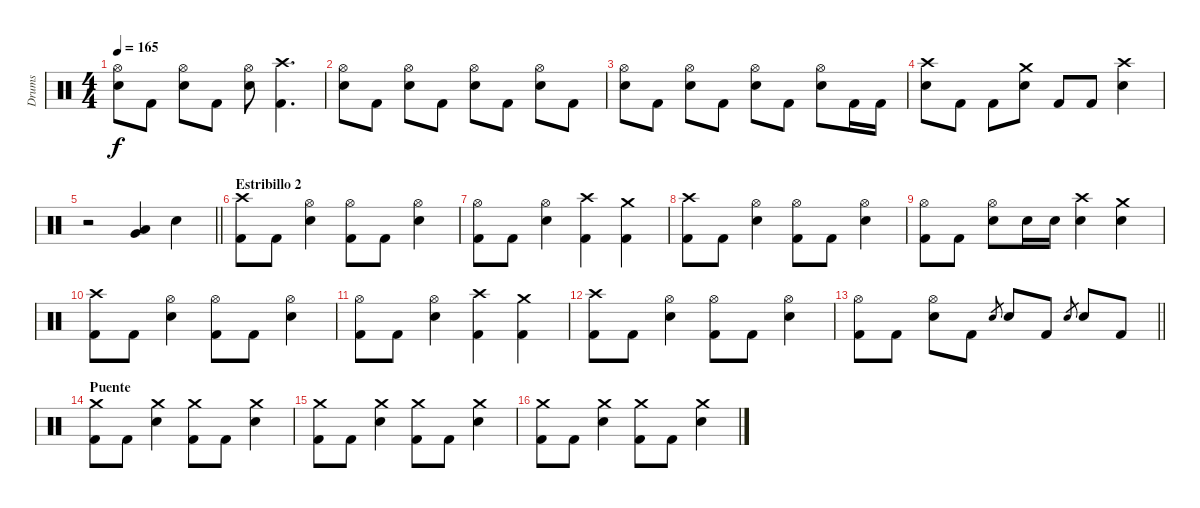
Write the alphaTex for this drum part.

\track ("Drums" "Drums") {instrument percussion}
\staff {score}
\articulation defaults
\ts (4 4)
\tempo 165
\clef neutral
\ks c
("Hi-Hat (open)" "Electric Snare (hit)").8{dy f} "Kick (hit) 2".8 ("Hi-Hat (open)" "Electric Snare (hit)").8 "Kick (hit) 2".8 ("Hi-Hat (open)" "Electric Snare (hit)").8 ("Crash high (hit)" "Kick (hit) 2").4{d} |
("Hi-Hat (open)" "Electric Snare (hit)").8 "Kick (hit) 2".8 ("Hi-Hat (open)" "Electric Snare (hit)").8 "Kick (hit) 2".8 ("Hi-Hat (open)" "Electric Snare (hit)").8 "Kick (hit) 2".8 ("Hi-Hat (open)" "Electric Snare (hit)").8 "Kick (hit) 2".8 |
("Hi-Hat (open)" "Electric Snare (hit)").8 "Kick (hit) 2".8 ("Hi-Hat (open)" "Electric Snare (hit)").8 "Kick (hit) 2".8 ("Hi-Hat (open)" "Electric Snare (hit)").8 "Kick (hit) 2".8 ("Hi-Hat (open)" "Electric Snare (hit)").8 "Kick (hit) 2".16 "Kick (hit) 2".16 |
("Crash high (hit)" "Electric Snare (hit)").8 "Kick (hit) 2".8 "Kick (hit) 2".8 ("Crash medium (hit)" "Electric Snare (hit)").8 "Kick (hit) 2".8 "Kick (hit) 2".8 ("Crash high (hit)" "Electric Snare (hit)").4 |
\barLineRight lightlight
r.2 ("Very Low Tom (hit)" "Low Floor Tom (hit)").4 "Electric Snare (hit)".4 |
\section ("" "Estribillo 2")
("Crash high (hit)" "Kick (hit) 2").8 "Kick (hit) 2".8 ("Hi-Hat (open)" "Electric Snare (hit)").4 ("Hi-Hat (open)" "Kick (hit) 2").8 "Kick (hit) 2".8 ("Hi-Hat (open)" "Electric Snare (hit)").4 |
("Hi-Hat (open)" "Kick (hit) 2").8 "Kick (hit) 2".8 ("Hi-Hat (open)" "Electric Snare (hit)").4 ("Crash high (hit)" "Kick (hit) 2").4 ("Crash medium (hit)" "Kick (hit) 2").4 |
("Crash high (hit)" "Kick (hit) 2").8 "Kick (hit) 2".8 ("Hi-Hat (open)" "Electric Snare (hit)").4 ("Hi-Hat (open)" "Kick (hit) 2").8 "Kick (hit) 2".8 ("Hi-Hat (open)" "Electric Snare (hit)").4 |
("Hi-Hat (open)" "Kick (hit) 2").8 "Kick (hit) 2".8 ("Hi-Hat (open)" "Electric Snare (hit)").8 "Electric Snare (hit)".16 "Electric Snare (hit)".16 ("Crash high (hit)" "Electric Snare (hit)").4 ("Crash medium (hit)" "Electric Snare (hit)").4 |
("Crash high (hit)" "Kick (hit) 2").8 "Kick (hit) 2".8 ("Hi-Hat (open)" "Electric Snare (hit)").4 ("Hi-Hat (open)" "Kick (hit) 2").8 "Kick (hit) 2".8 ("Hi-Hat (open)" "Electric Snare (hit)").4 |
("Hi-Hat (open)" "Kick (hit) 2").8 "Kick (hit) 2".8 ("Hi-Hat (open)" "Electric Snare (hit)").4 ("Crash high (hit)" "Kick (hit) 2").4 ("Crash medium (hit)" "Kick (hit) 2").4 |
("Crash high (hit)" "Kick (hit) 2").8 "Kick (hit) 2".8 ("Hi-Hat (open)" "Electric Snare (hit)").4 ("Hi-Hat (open)" "Kick (hit) 2").8 "Kick (hit) 2".8 ("Hi-Hat (open)" "Electric Snare (hit)").4 |
\barLineRight lightlight
("Hi-Hat (open)" "Kick (hit) 2").8 "Kick (hit) 2".8 ("Hi-Hat (open)" "Electric Snare (hit)").8 "Kick (hit) 2".8 "Electric Snare (hit)".8{gr} "Electric Snare (hit)".8 "Kick (hit) 2".8 "Electric Snare (hit)".8{gr} "Electric Snare (hit)".8 "Kick (hit) 2".8 |
\section ("" "Puente")
("Crash medium (hit)" "Kick (hit) 2").8 "Kick (hit) 2".8 ("Crash medium (hit)" "Electric Snare (hit)").4 ("Crash medium (hit)" "Kick (hit) 2").8 "Kick (hit) 2".8 ("Crash medium (hit)" "Electric Snare (hit)").4 |
("Crash medium (hit)" "Kick (hit) 2").8 "Kick (hit) 2".8 ("Crash medium (hit)" "Electric Snare (hit)").4 ("Crash medium (hit)" "Kick (hit) 2").8 "Kick (hit) 2".8 ("Crash medium (hit)" "Electric Snare (hit)").4 |
("Crash medium (hit)" "Kick (hit) 2").8 "Kick (hit) 2".8 ("Crash medium (hit)" "Electric Snare (hit)").4 ("Crash medium (hit)" "Kick (hit) 2").8 "Kick (hit) 2".8 ("Crash medium (hit)" "Electric Snare (hit)").4
